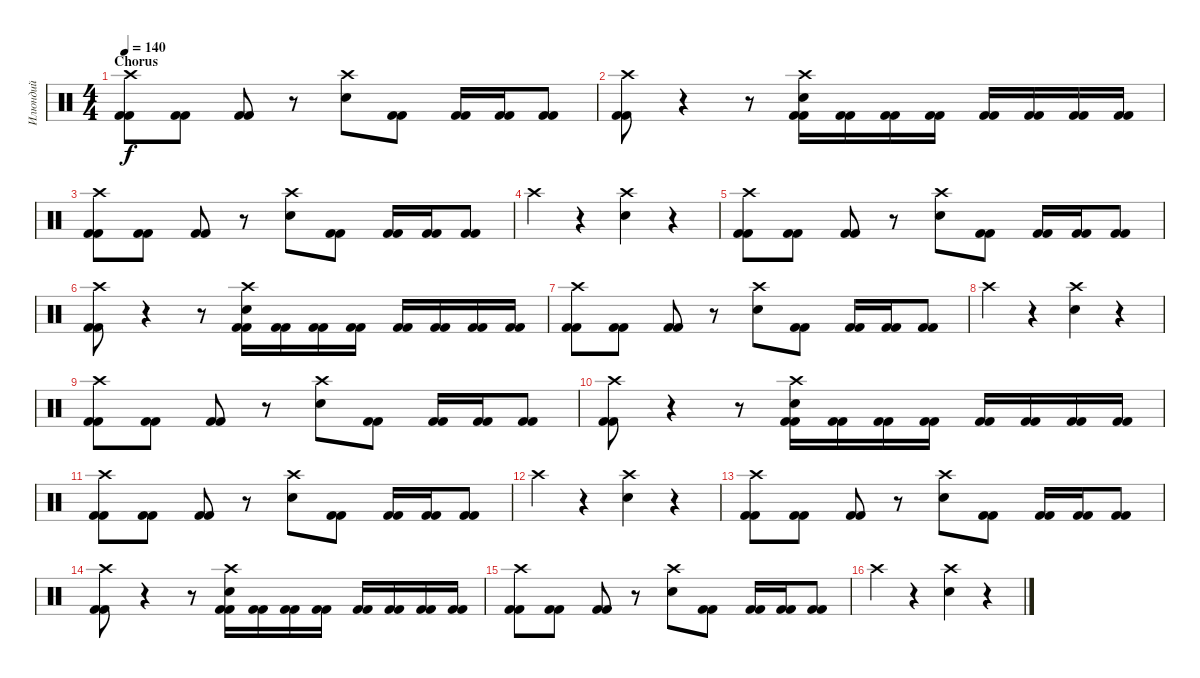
\track ("Илюндий" "Илюндий") {instrument percussion}
\staff {score}
\articulation defaults
\ts (4 4)
\section ("" "Chorus")
\tempo 140
\clef neutral
\ks c
("Crash high (hit)" "Kick (hit) 2" "Kick (hit) 2").8{dy f} ("Kick (hit) 2" "Kick (hit) 2").8 ("Kick (hit) 2" "Kick (hit) 2").8 r.8 ("Crash high (hit)" "Electric Snare (hit)").8 ("Kick (hit) 2" "Kick (hit) 2").8 ("Kick (hit) 2" "Kick (hit) 2").16 ("Kick (hit) 2" "Kick (hit) 2").16 ("Kick (hit) 2" "Kick (hit) 2").8 |
("Crash high (hit)" "Kick (hit) 2" "Kick (hit) 2").8 r.4 r.8 ("Crash high (hit)" "Electric Snare (hit)" "Kick (hit) 2" "Kick (hit) 2").16 ("Kick (hit) 2" "Kick (hit) 2").16 ("Kick (hit) 2" "Kick (hit) 2").16 ("Kick (hit) 2" "Kick (hit) 2").16 ("Kick (hit) 2" "Kick (hit) 2").16 ("Kick (hit) 2" "Kick (hit) 2").16 ("Kick (hit) 2" "Kick (hit) 2").16 ("Kick (hit) 2" "Kick (hit) 2").16 |
("Crash high (hit)" "Kick (hit) 2" "Kick (hit) 2").8 ("Kick (hit) 2" "Kick (hit) 2").8 ("Kick (hit) 2" "Kick (hit) 2").8 r.8 ("Crash high (hit)" "Electric Snare (hit)").8 ("Kick (hit) 2" "Kick (hit) 2").8 ("Kick (hit) 2" "Kick (hit) 2").16 ("Kick (hit) 2" "Kick (hit) 2").16 ("Kick (hit) 2" "Kick (hit) 2").8 |
"Crash high (hit)".4 r.4 ("Crash high (hit)" "Electric Snare (hit)").4 r.4 |
("Crash high (hit)" "Kick (hit) 2" "Kick (hit) 2").8 ("Kick (hit) 2" "Kick (hit) 2").8 ("Kick (hit) 2" "Kick (hit) 2").8 r.8 ("Crash high (hit)" "Electric Snare (hit)").8 ("Kick (hit) 2" "Kick (hit) 2").8 ("Kick (hit) 2" "Kick (hit) 2").16 ("Kick (hit) 2" "Kick (hit) 2").16 ("Kick (hit) 2" "Kick (hit) 2").8 |
("Crash high (hit)" "Kick (hit) 2" "Kick (hit) 2").8 r.4 r.8 ("Crash high (hit)" "Electric Snare (hit)" "Kick (hit) 2" "Kick (hit) 2").16 ("Kick (hit) 2" "Kick (hit) 2").16 ("Kick (hit) 2" "Kick (hit) 2").16 ("Kick (hit) 2" "Kick (hit) 2").16 ("Kick (hit) 2" "Kick (hit) 2").16 ("Kick (hit) 2" "Kick (hit) 2").16 ("Kick (hit) 2" "Kick (hit) 2").16 ("Kick (hit) 2" "Kick (hit) 2").16 |
("Crash high (hit)" "Kick (hit) 2" "Kick (hit) 2").8 ("Kick (hit) 2" "Kick (hit) 2").8 ("Kick (hit) 2" "Kick (hit) 2").8 r.8 ("Crash high (hit)" "Electric Snare (hit)").8 ("Kick (hit) 2" "Kick (hit) 2").8 ("Kick (hit) 2" "Kick (hit) 2").16 ("Kick (hit) 2" "Kick (hit) 2").16 ("Kick (hit) 2" "Kick (hit) 2").8 |
"Crash high (hit)".4 r.4 ("Crash high (hit)" "Electric Snare (hit)").4 r.4 |
("Crash high (hit)" "Kick (hit) 2" "Kick (hit) 2").8 ("Kick (hit) 2" "Kick (hit) 2").8 ("Kick (hit) 2" "Kick (hit) 2").8 r.8 ("Crash high (hit)" "Electric Snare (hit)").8 ("Kick (hit) 2" "Kick (hit) 2").8 ("Kick (hit) 2" "Kick (hit) 2").16 ("Kick (hit) 2" "Kick (hit) 2").16 ("Kick (hit) 2" "Kick (hit) 2").8 |
("Crash high (hit)" "Kick (hit) 2" "Kick (hit) 2").8 r.4 r.8 ("Crash high (hit)" "Electric Snare (hit)" "Kick (hit) 2" "Kick (hit) 2").16 ("Kick (hit) 2" "Kick (hit) 2").16 ("Kick (hit) 2" "Kick (hit) 2").16 ("Kick (hit) 2" "Kick (hit) 2").16 ("Kick (hit) 2" "Kick (hit) 2").16 ("Kick (hit) 2" "Kick (hit) 2").16 ("Kick (hit) 2" "Kick (hit) 2").16 ("Kick (hit) 2" "Kick (hit) 2").16 |
("Crash high (hit)" "Kick (hit) 2" "Kick (hit) 2").8 ("Kick (hit) 2" "Kick (hit) 2").8 ("Kick (hit) 2" "Kick (hit) 2").8 r.8 ("Crash high (hit)" "Electric Snare (hit)").8 ("Kick (hit) 2" "Kick (hit) 2").8 ("Kick (hit) 2" "Kick (hit) 2").16 ("Kick (hit) 2" "Kick (hit) 2").16 ("Kick (hit) 2" "Kick (hit) 2").8 |
"Crash high (hit)".4 r.4 ("Crash high (hit)" "Electric Snare (hit)").4 r.4 |
("Crash high (hit)" "Kick (hit) 2" "Kick (hit) 2").8 ("Kick (hit) 2" "Kick (hit) 2").8 ("Kick (hit) 2" "Kick (hit) 2").8 r.8 ("Crash high (hit)" "Electric Snare (hit)").8 ("Kick (hit) 2" "Kick (hit) 2").8 ("Kick (hit) 2" "Kick (hit) 2").16 ("Kick (hit) 2" "Kick (hit) 2").16 ("Kick (hit) 2" "Kick (hit) 2").8 |
("Crash high (hit)" "Kick (hit) 2" "Kick (hit) 2").8 r.4 r.8 ("Crash high (hit)" "Electric Snare (hit)" "Kick (hit) 2" "Kick (hit) 2").16 ("Kick (hit) 2" "Kick (hit) 2").16 ("Kick (hit) 2" "Kick (hit) 2").16 ("Kick (hit) 2" "Kick (hit) 2").16 ("Kick (hit) 2" "Kick (hit) 2").16 ("Kick (hit) 2" "Kick (hit) 2").16 ("Kick (hit) 2" "Kick (hit) 2").16 ("Kick (hit) 2" "Kick (hit) 2").16 |
("Crash high (hit)" "Kick (hit) 2" "Kick (hit) 2").8 ("Kick (hit) 2" "Kick (hit) 2").8 ("Kick (hit) 2" "Kick (hit) 2").8 r.8 ("Crash high (hit)" "Electric Snare (hit)").8 ("Kick (hit) 2" "Kick (hit) 2").8 ("Kick (hit) 2" "Kick (hit) 2").16 ("Kick (hit) 2" "Kick (hit) 2").16 ("Kick (hit) 2" "Kick (hit) 2").8 |
"Crash high (hit)".4 r.4 ("Crash high (hit)" "Electric Snare (hit)").4 r.4
